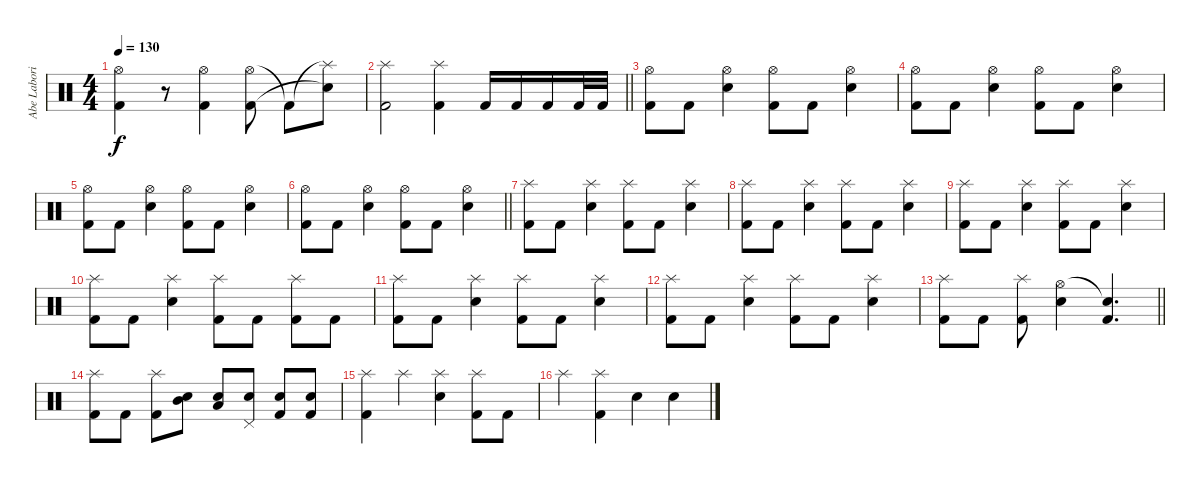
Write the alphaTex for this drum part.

\track ("Abe Laboriel, Jr." "Abe Labori") {instrument percussion}
\staff {score}
\articulation defaults
\ts (4 4)
\tempo 130
\clef neutral
\ks c
("Hi-Hat (open)" "Kick (hit) 2").4{dy f} r.8 ("Hi-Hat (open)" "Kick (hit) 2").4 ("Hi-Hat (open)" "Kick (hit) 2").8 "Kick (hit) 2"{t}.8 ("Splash (hit)"{t} "Snare (hit) 2"{t}).8 |
\barLineRight lightlight
("Splash (hit)" "Kick (hit) 2").2 ("Splash (hit)" "Kick (hit) 2").4 "Kick (hit) 2".16 "Kick (hit) 2".16 "Kick (hit) 2".16 "Kick (hit) 2".32 "Kick (hit) 2".32 |
("Hi-Hat (open)" "Kick (hit) 2").8 "Kick (hit) 2".8 ("Hi-Hat (open)" "Snare (hit) 2").4 ("Hi-Hat (open)" "Kick (hit) 2").8 "Kick (hit) 2".8 ("Hi-Hat (open)" "Snare (hit) 2").4 |
("Hi-Hat (open)" "Kick (hit) 2").8 "Kick (hit) 2".8 ("Hi-Hat (open)" "Snare (hit) 2").4 ("Hi-Hat (open)" "Kick (hit) 2").8 "Kick (hit) 2".8 ("Hi-Hat (open)" "Snare (hit) 2").4 |
("Hi-Hat (open)" "Kick (hit) 2").8 "Kick (hit) 2".8 ("Hi-Hat (open)" "Snare (hit) 2").4 ("Hi-Hat (open)" "Kick (hit) 2").8 "Kick (hit) 2".8 ("Hi-Hat (open)" "Snare (hit) 2").4 |
\barLineRight lightlight
("Hi-Hat (open)" "Kick (hit) 2").8 "Kick (hit) 2".8 ("Hi-Hat (open)" "Snare (hit) 2").4 ("Hi-Hat (open)" "Kick (hit) 2").8 "Kick (hit) 2".8 ("Hi-Hat (open)" "Snare (hit) 2").4 |
("Splash (hit)" "Kick (hit) 2").8 "Kick (hit) 2".8 ("Splash (hit)" "Snare (hit) 2").4 ("Splash (hit)" "Kick (hit) 2").8 "Kick (hit) 2".8 ("Splash (hit)" "Snare (hit) 2").4 |
("Splash (hit)" "Kick (hit) 2").8 "Kick (hit) 2".8 ("Splash (hit)" "Snare (hit) 2").4 ("Splash (hit)" "Kick (hit) 2").8 "Kick (hit) 2".8 ("Splash (hit)" "Snare (hit) 2").4 |
("Splash (hit)" "Kick (hit) 2").8 "Kick (hit) 2".8 ("Splash (hit)" "Snare (hit) 2").4 ("Splash (hit)" "Kick (hit) 2").8 "Kick (hit) 2".8 ("Splash (hit)" "Snare (hit) 2").4 |
("Splash (hit)" "Kick (hit) 2").8 "Kick (hit) 2".8 ("Splash (hit)" "Snare (hit) 2").4 ("Splash (hit)" "Kick (hit) 2").8 "Kick (hit) 2".8 ("Splash (hit)" "Kick (hit) 2").8 "Kick (hit) 2".8 |
("Splash (hit)" "Kick (hit) 2").8 "Kick (hit) 2".8 ("Splash (hit)" "Snare (hit) 2").4 ("Splash (hit)" "Kick (hit) 2").8 "Kick (hit) 2".8 ("Splash (hit)" "Snare (hit) 2").4 |
("Splash (hit)" "Kick (hit) 2").8 "Kick (hit) 2".8 ("Splash (hit)" "Snare (hit) 2").4 ("Splash (hit)" "Kick (hit) 2").8 "Kick (hit) 2".8 ("Splash (hit)" "Snare (hit) 2").4 |
\barLineRight lightlight
("Splash (hit)" "Kick (hit) 2").8 "Kick (hit) 2".8 ("Splash (hit)" "Kick (hit) 2").8 ("Hi-Hat (open)" "Snare (hit) 2").4 ("Snare (hit)"{t} "Kick (hit) 2").4{d} |
("Splash (hit)" "Kick (hit) 2").8 "Kick (hit) 2".8 ("Splash (hit)" "Kick (hit) 2").8 ("Snare (hit) 2" "Mid Tom (hit)").8 ("Snare (hit) 2" "Low Tom (hit)").8 ("Snare (hit) 2" "Pedal Hi-Hat (hit)").8 ("Snare (hit) 2" "Kick (hit) 2").8 ("Snare (hit) 2" "Kick (hit) 2").8 |
("Splash (hit)" "Kick (hit) 2").4 "Splash (hit)".4 ("Splash (hit)" "Snare (hit) 2").4 ("Splash (hit)" "Kick (hit) 2").8 "Kick (hit) 2".8 |
"Splash (hit)".4 ("Splash (hit)" "Kick (hit) 2").4 "Snare (hit) 2".4 "Snare (hit) 2".4
